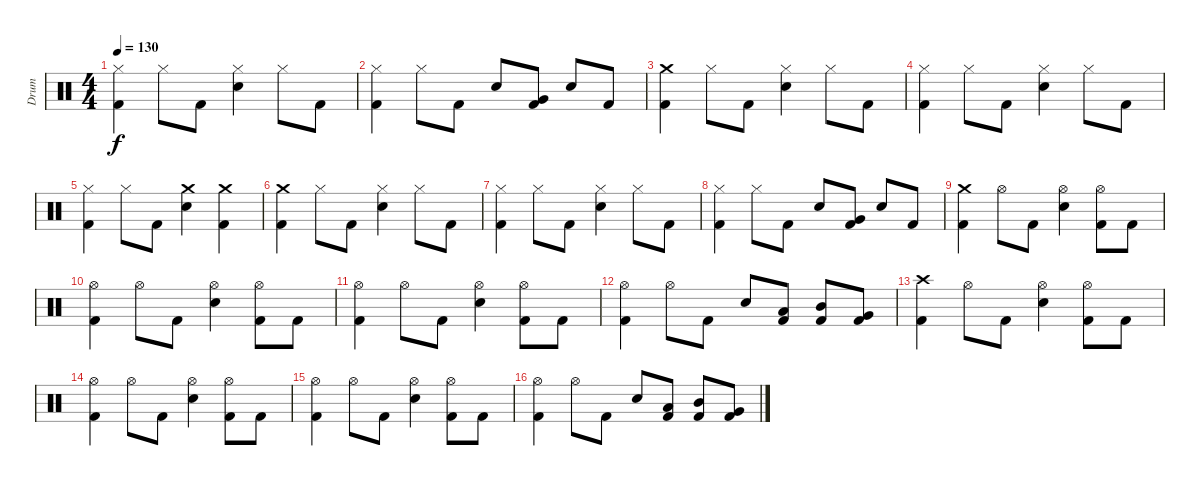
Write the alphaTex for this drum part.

\track ("Drum" "Drum") {instrument percussion}
\staff {score}
\articulation defaults
\ts (4 4)
\tempo 130
\clef neutral
\ks c
("Hi-Hat (closed)" "Kick (hit) 2").4{dy f} "Hi-Hat (closed)".8 "Kick (hit) 2".8 ("Hi-Hat (closed)" "Electric Snare (hit)").4 "Hi-Hat (closed)".8 "Kick (hit) 2".8 |
("Hi-Hat (closed)" "Kick (hit) 2").4 "Hi-Hat (closed)".8 "Kick (hit) 2".8 "Electric Snare (hit)".8 ("Very Low Tom (hit)" "Kick (hit) 2").8 "Electric Snare (hit)".8 "Kick (hit) 2".8 |
("Crash medium (hit)" "Kick (hit) 2").4 "Hi-Hat (closed)".8 "Kick (hit) 2".8 ("Hi-Hat (closed)" "Electric Snare (hit)").4 "Hi-Hat (closed)".8 "Kick (hit) 2".8 |
("Hi-Hat (closed)" "Kick (hit) 2").4 "Hi-Hat (closed)".8 "Kick (hit) 2".8 ("Hi-Hat (closed)" "Electric Snare (hit)").4 "Hi-Hat (closed)".8 "Kick (hit) 2".8 |
("Hi-Hat (closed)" "Kick (hit) 2").4 "Hi-Hat (closed)".8 "Kick (hit) 2".8 ("Crash medium (hit)" "Electric Snare (hit)").4 ("Crash medium (hit)" "Kick (hit) 2").4 |
("Crash medium (hit)" "Kick (hit) 2").4 "Hi-Hat (closed)".8 "Kick (hit) 2".8 ("Hi-Hat (closed)" "Electric Snare (hit)").4 "Hi-Hat (closed)".8 "Kick (hit) 2".8 |
("Hi-Hat (closed)" "Kick (hit) 2").4 "Hi-Hat (closed)".8 "Kick (hit) 2".8 ("Hi-Hat (closed)" "Electric Snare (hit)").4 "Hi-Hat (closed)".8 "Kick (hit) 2".8 |
("Hi-Hat (closed)" "Kick (hit) 2").4 "Hi-Hat (closed)".8 "Kick (hit) 2".8 "Electric Snare (hit)".8 ("Very Low Tom (hit)" "Kick (hit) 2").8 "Electric Snare (hit)".8 "Kick (hit) 2".8 |
("Crash medium (hit)" "Kick (hit) 2").4 "Hi-Hat (open)".8 "Kick (hit) 2".8 ("Hi-Hat (open)" "Electric Snare (hit)").4 ("Hi-Hat (open)" "Kick (hit) 2").8 "Kick (hit) 2".8 |
("Hi-Hat (open)" "Kick (hit) 2").4 "Hi-Hat (open)".8 "Kick (hit) 2".8 ("Hi-Hat (open)" "Electric Snare (hit)").4 ("Hi-Hat (open)" "Kick (hit) 2").8 "Kick (hit) 2".8 |
("Hi-Hat (open)" "Kick (hit) 2").4 "Hi-Hat (open)".8 "Kick (hit) 2".8 ("Hi-Hat (open)" "Electric Snare (hit)").4 ("Hi-Hat (open)" "Kick (hit) 2").8 "Kick (hit) 2".8 |
("Hi-Hat (open)" "Kick (hit) 2").4 "Hi-Hat (open)".8 "Kick (hit) 2".8 "Electric Snare (hit)".8 ("Low Tom (hit)" "Kick (hit) 2").8 ("Mid Tom (hit)" "Kick (hit) 2").8 ("Very Low Tom (hit)" "Kick (hit) 2").8 |
("Crash high (hit)" "Kick (hit) 2").4 "Hi-Hat (open)".8 "Kick (hit) 2".8 ("Hi-Hat (open)" "Electric Snare (hit)").4 ("Hi-Hat (open)" "Kick (hit) 2").8 "Kick (hit) 2".8 |
("Hi-Hat (open)" "Kick (hit) 2").4 "Hi-Hat (open)".8 "Kick (hit) 2".8 ("Hi-Hat (open)" "Electric Snare (hit)").4 ("Hi-Hat (open)" "Kick (hit) 2").8 "Kick (hit) 2".8 |
("Hi-Hat (open)" "Kick (hit) 2").4 "Hi-Hat (open)".8 "Kick (hit) 2".8 ("Hi-Hat (open)" "Electric Snare (hit)").4 ("Hi-Hat (open)" "Kick (hit) 2").8 "Kick (hit) 2".8 |
("Hi-Hat (open)" "Kick (hit) 2").4 "Hi-Hat (open)".8 "Kick (hit) 2".8 "Electric Snare (hit)".8 ("Low Tom (hit)" "Kick (hit) 2").8 ("Mid Tom (hit)" "Kick (hit) 2").8 ("Very Low Tom (hit)" "Kick (hit) 2").8
